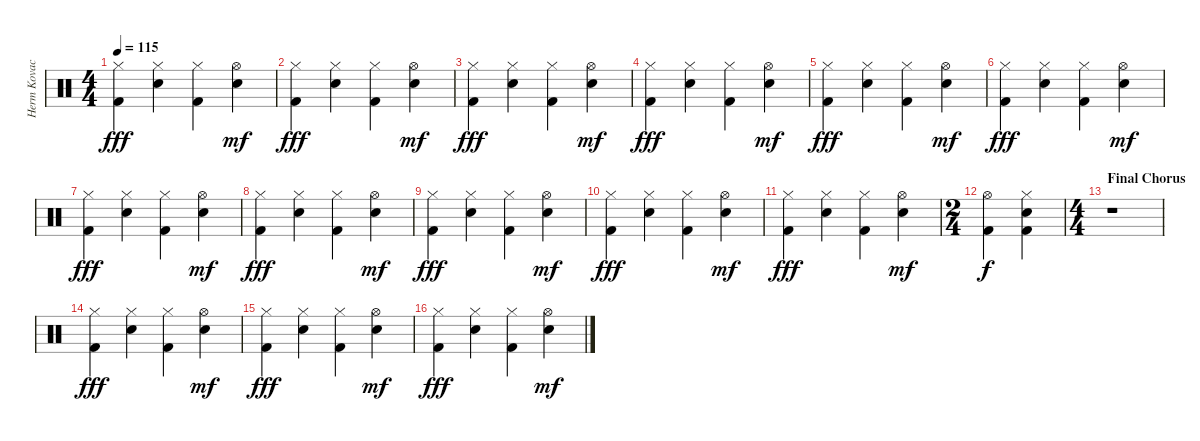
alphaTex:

\track ("Herm Kovacs" "Herm Kovac") {instrument percussion}
\staff {score}
\articulation defaults
\ts (4 4)
\tempo 115
\clef neutral
\ks c
("Hi-Hat (closed)" "Kick (hit) 2").4{dy fff} ("Hi-Hat (closed)" "Electric Snare (hit)").4 ("Hi-Hat (closed)" "Kick (hit) 2").4 ("Hi-Hat (open)" "Electric Snare (hit)").4{dy mf} |
("Hi-Hat (closed)" "Kick (hit) 2").4{dy fff} ("Hi-Hat (closed)" "Electric Snare (hit)").4 ("Hi-Hat (closed)" "Kick (hit) 2").4 ("Hi-Hat (open)" "Electric Snare (hit)").4{dy mf} |
("Hi-Hat (closed)" "Kick (hit) 2").4{dy fff} ("Hi-Hat (closed)" "Electric Snare (hit)").4 ("Hi-Hat (closed)" "Kick (hit) 2").4 ("Hi-Hat (open)" "Electric Snare (hit)").4{dy mf} |
("Hi-Hat (closed)" "Kick (hit) 2").4{dy fff} ("Hi-Hat (closed)" "Electric Snare (hit)").4 ("Hi-Hat (closed)" "Kick (hit) 2").4 ("Hi-Hat (open)" "Electric Snare (hit)").4{dy mf} |
("Hi-Hat (closed)" "Kick (hit) 2").4{dy fff} ("Hi-Hat (closed)" "Electric Snare (hit)").4 ("Hi-Hat (closed)" "Kick (hit) 2").4 ("Hi-Hat (open)" "Electric Snare (hit)").4{dy mf} |
("Hi-Hat (closed)" "Kick (hit) 2").4{dy fff} ("Hi-Hat (closed)" "Electric Snare (hit)").4 ("Hi-Hat (closed)" "Kick (hit) 2").4 ("Hi-Hat (open)" "Electric Snare (hit)").4{dy mf} |
("Hi-Hat (closed)" "Kick (hit) 2").4{dy fff} ("Hi-Hat (closed)" "Electric Snare (hit)").4 ("Hi-Hat (closed)" "Kick (hit) 2").4 ("Hi-Hat (open)" "Electric Snare (hit)").4{dy mf} |
("Hi-Hat (closed)" "Kick (hit) 2").4{dy fff} ("Hi-Hat (closed)" "Electric Snare (hit)").4 ("Hi-Hat (closed)" "Kick (hit) 2").4 ("Hi-Hat (open)" "Electric Snare (hit)").4{dy mf} |
("Hi-Hat (closed)" "Kick (hit) 2").4{dy fff} ("Hi-Hat (closed)" "Electric Snare (hit)").4 ("Hi-Hat (closed)" "Kick (hit) 2").4 ("Hi-Hat (open)" "Electric Snare (hit)").4{dy mf} |
("Hi-Hat (closed)" "Kick (hit) 2").4{dy fff} ("Hi-Hat (closed)" "Electric Snare (hit)").4 ("Hi-Hat (closed)" "Kick (hit) 2").4 ("Hi-Hat (open)" "Electric Snare (hit)").4{dy mf} |
("Hi-Hat (closed)" "Kick (hit) 2").4{dy fff} ("Hi-Hat (closed)" "Electric Snare (hit)").4 ("Hi-Hat (closed)" "Kick (hit) 2").4 ("Hi-Hat (open)" "Electric Snare (hit)").4{dy mf} |
\ts (2 4)
("Hi-Hat (open)" "Kick (hit) 2").4{dy f} ("Hi-Hat (closed)" "Electric Snare (hit)" "Kick (hit) 2").4 |
\ts (4 4)
\section ("" "Final Chorus")
r.1 |
("Hi-Hat (closed)" "Kick (hit) 2").4{dy fff} ("Hi-Hat (closed)" "Electric Snare (hit)").4 ("Hi-Hat (closed)" "Kick (hit) 2").4 ("Hi-Hat (open)" "Electric Snare (hit)").4{dy mf} |
("Hi-Hat (closed)" "Kick (hit) 2").4{dy fff} ("Hi-Hat (closed)" "Electric Snare (hit)").4 ("Hi-Hat (closed)" "Kick (hit) 2").4 ("Hi-Hat (open)" "Electric Snare (hit)").4{dy mf} |
("Hi-Hat (closed)" "Kick (hit) 2").4{dy fff} ("Hi-Hat (closed)" "Electric Snare (hit)").4 ("Hi-Hat (closed)" "Kick (hit) 2").4 ("Hi-Hat (open)" "Electric Snare (hit)").4{dy mf}
